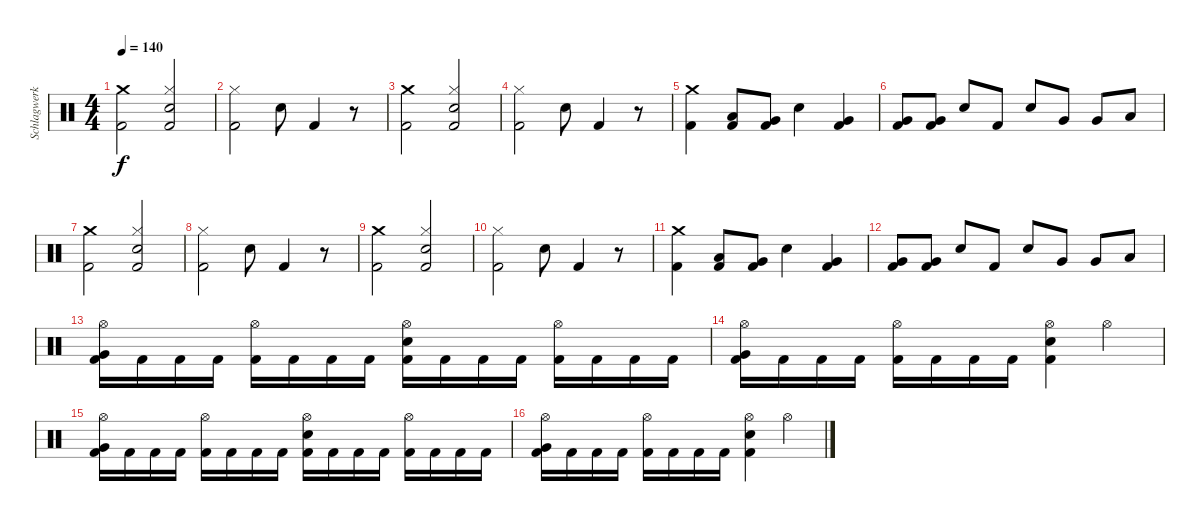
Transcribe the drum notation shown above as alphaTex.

\track ("Schlagwerk" "Schlagwerk") {instrument percussion}
\staff {score}
\articulation defaults
\ts (4 4)
\tempo 140
\clef neutral
\ks c
("Crash medium (hit)" "Kick (hit) 2").2{dy f} ("Hi-Hat (closed)" "Snare (hit) 2" "Kick (hit) 2").2 |
("Hi-Hat (closed)" "Kick (hit) 2").2 "Snare (hit) 2".8 "Kick (hit) 2".4 r.8 |
("Crash medium (hit)" "Kick (hit) 2").2 ("Hi-Hat (closed)" "Snare (hit) 2" "Kick (hit) 2").2 |
("Hi-Hat (closed)" "Kick (hit) 2").2 "Snare (hit) 2".8 "Kick (hit) 2".4 r.8 |
("Crash medium (hit)" "Kick (hit) 2").4 ("Low Tom (hit)" "Kick (hit) 2").8 ("Very Low Tom (hit)" "Kick (hit) 2").8 "Snare (hit) 2".4 ("Very Low Tom (hit)" "Kick (hit) 2").4 |
("Very Low Tom (hit)" "Kick (hit) 2").8 ("Very Low Tom (hit)" "Kick (hit) 2").8 "Snare (hit) 2".8 "Kick (hit) 2".8 "Snare (hit) 2".8 "Very Low Tom (hit)".8 "Very Low Tom (hit)".8 "Low Floor Tom (hit)".8 |
("Crash medium (hit)" "Kick (hit) 2").2 ("Hi-Hat (closed)" "Snare (hit) 2" "Kick (hit) 2").2 |
("Hi-Hat (closed)" "Kick (hit) 2").2 "Snare (hit) 2".8 "Kick (hit) 2".4 r.8 |
("Crash medium (hit)" "Kick (hit) 2").2 ("Hi-Hat (closed)" "Snare (hit) 2" "Kick (hit) 2").2 |
("Hi-Hat (closed)" "Kick (hit) 2").2 "Snare (hit) 2".8 "Kick (hit) 2".4 r.8 |
("Crash medium (hit)" "Kick (hit) 2").4 ("Low Tom (hit)" "Kick (hit) 2").8 ("Very Low Tom (hit)" "Kick (hit) 2").8 "Snare (hit) 2".4 ("Very Low Tom (hit)" "Kick (hit) 2").4 |
("Very Low Tom (hit)" "Kick (hit) 2").8 ("Very Low Tom (hit)" "Kick (hit) 2").8 "Snare (hit) 2".8 "Kick (hit) 2".8 "Snare (hit) 2".8 "Very Low Tom (hit)".8 "Very Low Tom (hit)".8 "Low Floor Tom (hit)".8 |
("Hi-Hat (open)" "Very Low Tom (hit)" "Kick (hit) 2").16 "Kick (hit) 2".16 "Kick (hit) 2".16 "Kick (hit) 2".16 ("Hi-Hat (open)" "Kick (hit) 2").16 "Kick (hit) 2".16 "Kick (hit) 2".16 "Kick (hit) 2".16 ("Hi-Hat (open)" "Snare (hit) 2" "Kick (hit) 2").16 "Kick (hit) 2".16 "Kick (hit) 2".16 "Kick (hit) 2".16 ("Hi-Hat (open)" "Kick (hit) 2").16 "Kick (hit) 2".16 "Kick (hit) 2".16 "Kick (hit) 2".16 |
("Hi-Hat (open)" "Very Low Tom (hit)" "Kick (hit) 2").16 "Kick (hit) 2".16 "Kick (hit) 2".16 "Kick (hit) 2".16 ("Hi-Hat (open)" "Kick (hit) 2").16 "Kick (hit) 2".16 "Kick (hit) 2".16 "Kick (hit) 2".16 ("Hi-Hat (open)" "Snare (hit) 2" "Kick (hit) 2").4 "Hi-Hat (open)".4 |
("Hi-Hat (open)" "Very Low Tom (hit)" "Kick (hit) 2").16 "Kick (hit) 2".16 "Kick (hit) 2".16 "Kick (hit) 2".16 ("Hi-Hat (open)" "Kick (hit) 2").16 "Kick (hit) 2".16 "Kick (hit) 2".16 "Kick (hit) 2".16 ("Hi-Hat (open)" "Snare (hit) 2" "Kick (hit) 2").16 "Kick (hit) 2".16 "Kick (hit) 2".16 "Kick (hit) 2".16 ("Hi-Hat (open)" "Kick (hit) 2").16 "Kick (hit) 2".16 "Kick (hit) 2".16 "Kick (hit) 2".16 |
("Hi-Hat (open)" "Very Low Tom (hit)" "Kick (hit) 2").16 "Kick (hit) 2".16 "Kick (hit) 2".16 "Kick (hit) 2".16 ("Hi-Hat (open)" "Kick (hit) 2").16 "Kick (hit) 2".16 "Kick (hit) 2".16 "Kick (hit) 2".16 ("Hi-Hat (open)" "Snare (hit) 2" "Kick (hit) 2").4 "Hi-Hat (open)".4
